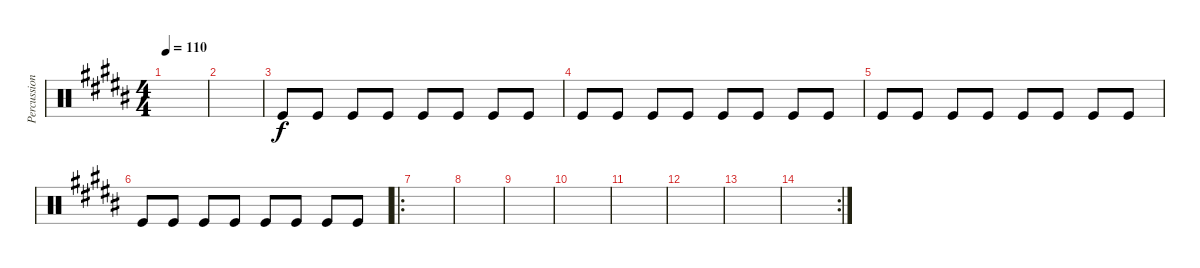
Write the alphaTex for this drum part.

\track ("Percussions" "Percussion") {instrument percussion}
\staff {score}
\articulation defaults
\ts (4 4)
\tempo 110
\clef neutral
\ks b
|
|
"Kick (hit)".8 "Kick (hit)".8 "Kick (hit)".8 "Kick (hit)".8 "Kick (hit)".8 "Kick (hit)".8 "Kick (hit)".8 "Kick (hit)".8 |
"Kick (hit)".8 "Kick (hit)".8 "Kick (hit)".8 "Kick (hit)".8 "Kick (hit)".8 "Kick (hit)".8 "Kick (hit)".8 "Kick (hit)".8 |
"Kick (hit)".8 "Kick (hit)".8 "Kick (hit)".8 "Kick (hit)".8 "Kick (hit)".8 "Kick (hit)".8 "Kick (hit)".8 "Kick (hit)".8 |
"Kick (hit)".8 "Kick (hit)".8 "Kick (hit)".8 "Kick (hit)".8 "Kick (hit)".8 "Kick (hit)".8 "Kick (hit)".8 "Kick (hit)".8 |
\ro
|
|
|
|
|
|
|
\rc 2
